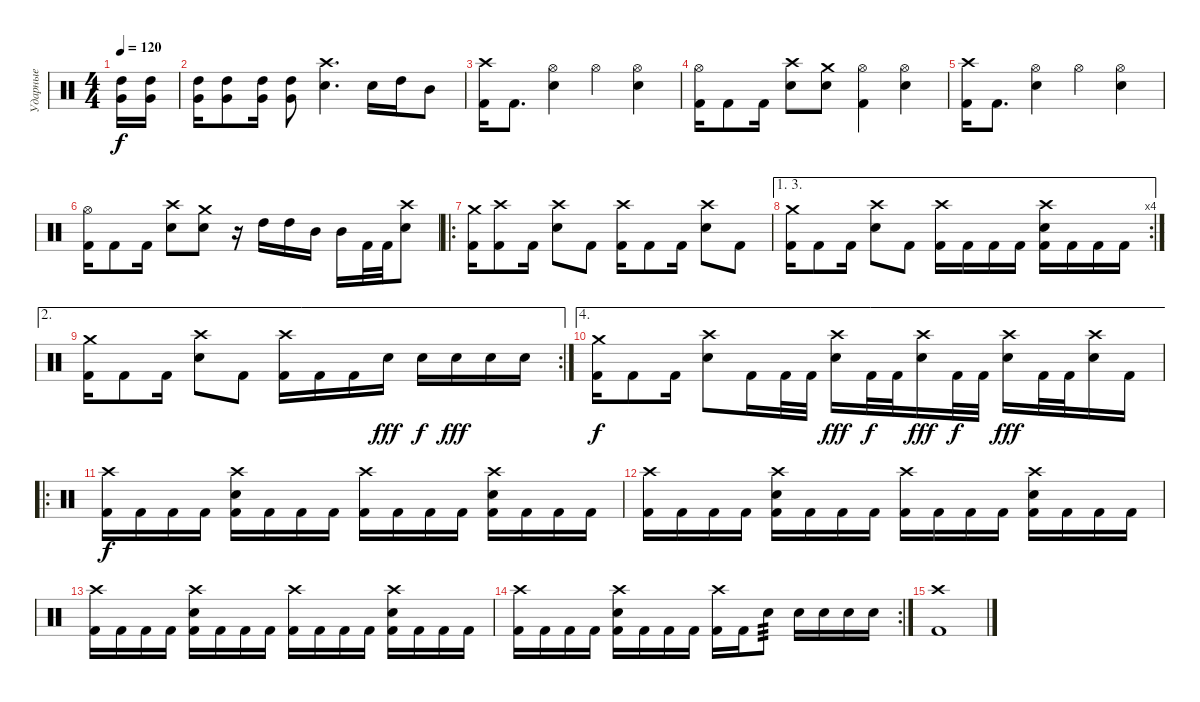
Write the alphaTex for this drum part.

\track ("Ударные" "Ударные") {instrument percussion}
\staff {score}
\articulation defaults
\ts (4 4)
\tempo 120
\clef neutral
\ks c
("High Tom (hit)" "Very Low Tom (hit)").16{dy f} ("High Tom (hit)" "Very Low Tom (hit)").16 |
("High Tom (hit)" "Very Low Tom (hit)").16 ("High Tom (hit)" "Very Low Tom (hit)").8 ("High Tom (hit)" "Very Low Tom (hit)").16 ("High Tom (hit)" "Very Low Tom (hit)").8 ("Crash high (hit)" "Electric Snare (hit)").4{d} "Electric Snare (hit)".16 "High Tom (hit)".16 "Mid Tom (hit)".8 |
("Crash high (hit)" "Kick (hit) 2").16 "Kick (hit) 2".8{d} ("Hi-Hat (open)" "Electric Snare (hit)").4 "Hi-Hat (open)".4 ("Hi-Hat (open)" "Electric Snare (hit)").4 |
("Hi-Hat (open)" "Kick (hit) 2").16 "Kick (hit) 2".8 "Kick (hit) 2".16 ("Crash high (hit)" "Electric Snare (hit)").8 ("Crash medium (hit)" "Electric Snare (hit)").8 ("Hi-Hat (open)" "Kick (hit) 2").4 ("Hi-Hat (open)" "Electric Snare (hit)").4 |
("Crash high (hit)" "Kick (hit) 2").16 "Kick (hit) 2".8{d} ("Hi-Hat (open)" "Electric Snare (hit)").4 "Hi-Hat (open)".4 ("Hi-Hat (open)" "Electric Snare (hit)").4 |
("Hi-Hat (open)" "Kick (hit) 2").16 "Kick (hit) 2".8 "Kick (hit) 2".16 ("Crash high (hit)" "Electric Snare (hit)").8 ("Crash medium (hit)" "Electric Snare (hit)").8 r.16 "High Tom (hit)".16 "High Tom (hit)".16 "Mid Tom (hit)".16 "Mid Tom (hit)".16 "Kick (hit) 2".32 "Kick (hit) 2".32 ("Crash high (hit)" "Electric Snare (hit)").8 |
\ro
("Crash medium (hit)" "Kick (hit) 2").16 ("Crash high (hit)" "Kick (hit) 2").8 "Kick (hit) 2".16 ("Crash high (hit)" "Electric Snare (hit)").8 "Kick (hit) 2".8 ("Crash high (hit)" "Kick (hit) 2").16 "Kick (hit) 2".8 "Kick (hit) 2".16 ("Crash high (hit)" "Electric Snare (hit)").8 "Kick (hit) 2".8 |
\ae (1 3)
\rc 4
("Crash medium (hit)" "Kick (hit) 2").16 "Kick (hit) 2".8 "Kick (hit) 2".16 ("Crash high (hit)" "Electric Snare (hit)").8 "Kick (hit) 2".8 ("Crash high (hit)" "Kick (hit) 2").16 "Kick (hit) 2".16 "Kick (hit) 2".16 "Kick (hit) 2".16 ("Crash high (hit)" "Electric Snare (hit)" "Kick (hit) 2").16 "Kick (hit) 2".16 "Kick (hit) 2".16 "Kick (hit) 2".16 |
\ae 2
\rc 2
("Crash medium (hit)" "Kick (hit) 2").16 "Kick (hit) 2".8 "Kick (hit) 2".16 ("Crash high (hit)" "Electric Snare (hit)").8 "Kick (hit) 2".8 ("Crash high (hit)" "Kick (hit) 2").16 "Kick (hit) 2".16 "Kick (hit) 2".16 "Electric Snare (hit)".16{dy fff} "Electric Snare (hit)".16{dy f} "Electric Snare (hit)".16{dy fff} "Electric Snare (hit)".16 "Electric Snare (hit)".16 |
\ae 4
("Crash medium (hit)" "Kick (hit) 2").16{dy f} "Kick (hit) 2".8 "Kick (hit) 2".16 ("Crash high (hit)" "Electric Snare (hit)").8 "Kick (hit) 2".16 "Kick (hit) 2".32 "Kick (hit) 2".32 ("Crash high (hit)" "Electric Snare (hit)").16{dy fff} "Kick (hit) 2".32{dy f} "Kick (hit) 2".32 ("Crash high (hit)" "Electric Snare (hit)").16{dy fff} "Kick (hit) 2".32{dy f} "Kick (hit) 2".32 ("Crash high (hit)" "Electric Snare (hit)").16{dy fff} "Kick (hit) 2".32 "Kick (hit) 2".32 ("Crash high (hit)" "Electric Snare (hit)").16 "Kick (hit) 2".16 |
\ro
("Crash high (hit)" "Kick (hit) 2").16{dy f} "Kick (hit) 2".16 "Kick (hit) 2".16 "Kick (hit) 2".16 ("Crash high (hit)" "Electric Snare (hit)" "Kick (hit) 2").16 "Kick (hit) 2".16 "Kick (hit) 2".16 "Kick (hit) 2".16 ("Crash high (hit)" "Kick (hit) 2").16 "Kick (hit) 2".16 "Kick (hit) 2".16 "Kick (hit) 2".16 ("Crash high (hit)" "Electric Snare (hit)" "Kick (hit) 2").16 "Kick (hit) 2".16 "Kick (hit) 2".16 "Kick (hit) 2".16 |
("Crash high (hit)" "Kick (hit) 2").16 "Kick (hit) 2".16 "Kick (hit) 2".16 "Kick (hit) 2".16 ("Crash high (hit)" "Electric Snare (hit)" "Kick (hit) 2").16 "Kick (hit) 2".16 "Kick (hit) 2".16 "Kick (hit) 2".16 ("Crash high (hit)" "Kick (hit) 2").16 "Kick (hit) 2".16 "Kick (hit) 2".16 "Kick (hit) 2".16 ("Crash high (hit)" "Electric Snare (hit)" "Kick (hit) 2").16 "Kick (hit) 2".16 "Kick (hit) 2".16 "Kick (hit) 2".16 |
("Crash high (hit)" "Kick (hit) 2").16 "Kick (hit) 2".16 "Kick (hit) 2".16 "Kick (hit) 2".16 ("Crash high (hit)" "Electric Snare (hit)" "Kick (hit) 2").16 "Kick (hit) 2".16 "Kick (hit) 2".16 "Kick (hit) 2".16 ("Crash high (hit)" "Kick (hit) 2").16 "Kick (hit) 2".16 "Kick (hit) 2".16 "Kick (hit) 2".16 ("Crash high (hit)" "Electric Snare (hit)" "Kick (hit) 2").16 "Kick (hit) 2".16 "Kick (hit) 2".16 "Kick (hit) 2".16 |
\rc 2
("Crash high (hit)" "Kick (hit) 2").16 "Kick (hit) 2".16 "Kick (hit) 2".16 "Kick (hit) 2".16 ("Crash high (hit)" "Electric Snare (hit)" "Kick (hit) 2").16 "Kick (hit) 2".16 "Kick (hit) 2".16 "Kick (hit) 2".16 ("Crash high (hit)" "Kick (hit) 2").16 "Kick (hit) 2".16 "Electric Snare (hit)".8{tp 3} "Electric Snare (hit)".16 "Electric Snare (hit)".16 "Electric Snare (hit)".16 "Electric Snare (hit)".16 |
("Crash high (hit)" "Kick (hit) 2").1
